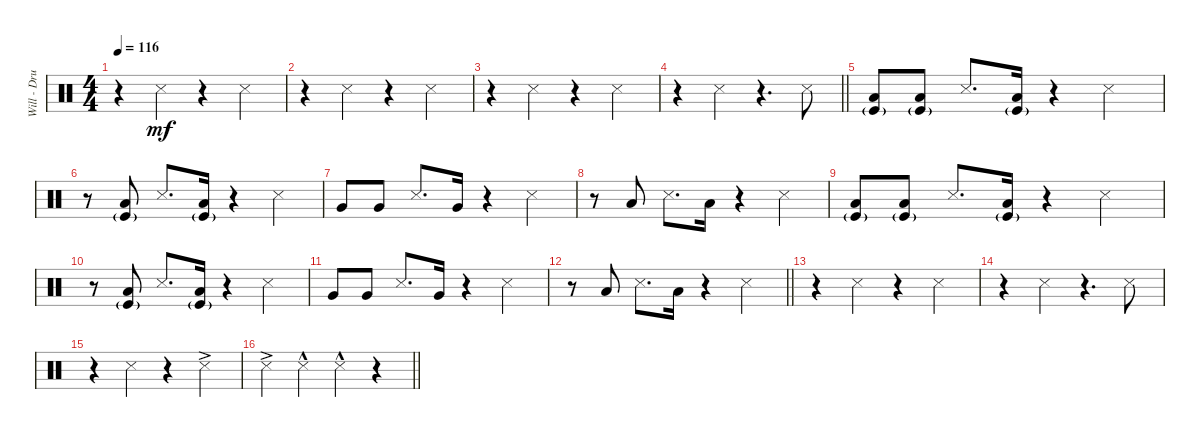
\track ("Will - Drumkit" "Will - Dru") {instrument percussion}
\staff {score}
\articulation defaults
\ts (4 4)
\tempo 116
\clef neutral
\ks c
r.4{dy mf} "Snare (side stick) 3".4 r.4 "Snare (side stick) 3".4 |
r.4 "Snare (side stick) 3".4 r.4 "Snare (side stick) 3".4 |
r.4 "Snare (side stick) 3".4 r.4 "Snare (side stick) 3".4 |
\barLineRight lightlight
r.4 "Snare (side stick) 3".4 r.4{d} "Snare (side stick) 3".8 |
("Low Tom (hit)" "Kick (hit)"{g}).8 ("Low Tom (hit)" "Kick (hit)"{g}).8 "Snare (side stick) 3".8{d} ("Low Tom (hit)" "Kick (hit)"{g}).16 r.4 "Snare (side stick) 3".4 |
r.8 ("Low Tom (hit)" "Kick (hit)"{g}).8 "Snare (side stick) 3".8{d} ("Low Tom (hit)" "Kick (hit)"{g}).16 r.4 "Snare (side stick) 3".4 |
"Very Low Tom (hit)".8 "Very Low Tom (hit)".8 "Snare (side stick) 3".8{d} "Very Low Tom (hit)".16 r.4 "Snare (side stick) 3".4 |
r.8 "Low Floor Tom (hit)".8 "Snare (side stick) 3".8{d} "Low Floor Tom (hit)".16 r.4 "Snare (side stick) 3".4 |
("Low Tom (hit)" "Kick (hit)"{g}).8 ("Low Tom (hit)" "Kick (hit)"{g}).8 "Snare (side stick) 3".8{d} ("Low Tom (hit)" "Kick (hit)"{g}).16 r.4 "Snare (side stick) 3".4 |
r.8 ("Low Tom (hit)" "Kick (hit)"{g}).8 "Snare (side stick) 3".8{d} ("Low Tom (hit)" "Kick (hit)"{g}).16 r.4 "Snare (side stick) 3".4 |
"Very Low Tom (hit)".8 "Very Low Tom (hit)".8 "Snare (side stick) 3".8{d} "Very Low Tom (hit)".16 r.4 "Snare (side stick) 3".4 |
\barLineRight lightlight
r.8 "Low Floor Tom (hit)".8 "Snare (side stick) 3".8{d} "Low Floor Tom (hit)".16 r.4 "Snare (side stick) 3".4 |
r.4 "Snare (side stick) 3".4 r.4 "Snare (side stick) 3".4 |
r.4 "Snare (side stick) 3".4 r.4{d} "Snare (side stick) 3".8 |
r.4 "Snare (side stick) 3".4 r.4 "Snare (side stick) 3"{ac}.4 |
\barLineRight lightlight "Snare (side stick) 3"{ac}.4 "Snare (side stick) 3"{hac}.4 "Snare (side stick) 3"{hac}.4
r.4
